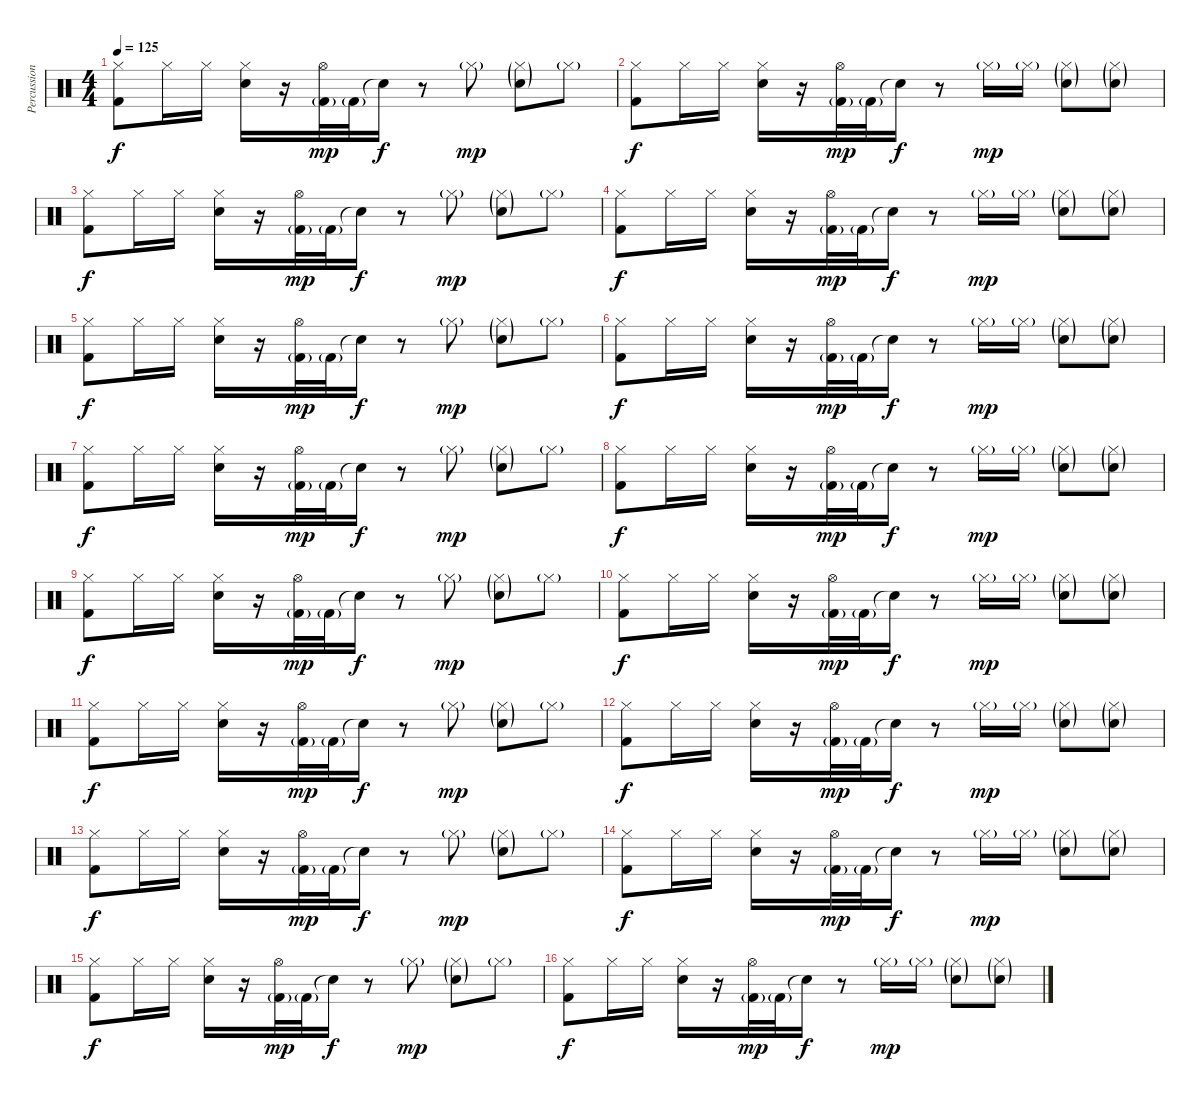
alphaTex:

\track ("Percussion" "Percussion") {instrument percussion}
\staff {score}
\articulation defaults
\ts (4 4)
\tempo 125
\clef neutral
\ks c
("Hi-Hat (closed)" "Kick (hit) 2").8{dy f} "Hi-Hat (closed)".16 "Hi-Hat (closed)".16 ("Hi-Hat (closed)" "Snare (hit) 2").16 r.16 ("Hi-Hat (open)" "Kick (hit) 2"{g}).32{dy mp} "Kick (hit) 2"{g}.32 "Snare (hit)"{t}.16{dy f} r.8 "Hi-Hat (closed)"{g}.8{dy mp} ("Hi-Hat (closed)"{g} "Snare (hit) 2"{g}).8 "Hi-Hat (closed)"{g}.8 |
("Hi-Hat (closed)" "Kick (hit) 2").8{dy f} "Hi-Hat (closed)".16 "Hi-Hat (closed)".16 ("Hi-Hat (closed)" "Snare (hit) 2").16 r.16 ("Hi-Hat (open)" "Kick (hit) 2"{g}).32{dy mp} "Kick (hit) 2"{g}.32 "Snare (hit)"{t}.16{dy f} r.8 "Hi-Hat (closed)"{g}.16{dy mp} "Hi-Hat (closed)"{g}.16 ("Hi-Hat (closed)"{g} "Snare (hit) 2"{g}).8 ("Hi-Hat (closed)"{g} "Snare (hit) 2"{g}).8 |
("Hi-Hat (closed)" "Kick (hit) 2").8{dy f} "Hi-Hat (closed)".16 "Hi-Hat (closed)".16 ("Hi-Hat (closed)" "Snare (hit) 2").16 r.16 ("Hi-Hat (open)" "Kick (hit) 2"{g}).32{dy mp} "Kick (hit) 2"{g}.32 "Snare (hit)"{t}.16{dy f} r.8 "Hi-Hat (closed)"{g}.8{dy mp} ("Hi-Hat (closed)"{g} "Snare (hit) 2"{g}).8 "Hi-Hat (closed)"{g}.8 |
("Hi-Hat (closed)" "Kick (hit) 2").8{dy f} "Hi-Hat (closed)".16 "Hi-Hat (closed)".16 ("Hi-Hat (closed)" "Snare (hit) 2").16 r.16 ("Hi-Hat (open)" "Kick (hit) 2"{g}).32{dy mp} "Kick (hit) 2"{g}.32 "Snare (hit)"{t}.16{dy f} r.8 "Hi-Hat (closed)"{g}.16{dy mp} "Hi-Hat (closed)"{g}.16 ("Hi-Hat (closed)"{g} "Snare (hit) 2"{g}).8 ("Hi-Hat (closed)"{g} "Snare (hit) 2"{g}).8 |
("Hi-Hat (closed)" "Kick (hit) 2").8{dy f} "Hi-Hat (closed)".16 "Hi-Hat (closed)".16 ("Hi-Hat (closed)" "Snare (hit) 2").16 r.16 ("Hi-Hat (open)" "Kick (hit) 2"{g}).32{dy mp} "Kick (hit) 2"{g}.32 "Snare (hit)"{t}.16{dy f} r.8 "Hi-Hat (closed)"{g}.8{dy mp} ("Hi-Hat (closed)"{g} "Snare (hit) 2"{g}).8 "Hi-Hat (closed)"{g}.8 |
("Hi-Hat (closed)" "Kick (hit) 2").8{dy f} "Hi-Hat (closed)".16 "Hi-Hat (closed)".16 ("Hi-Hat (closed)" "Snare (hit) 2").16 r.16 ("Hi-Hat (open)" "Kick (hit) 2"{g}).32{dy mp} "Kick (hit) 2"{g}.32 "Snare (hit)"{t}.16{dy f} r.8 "Hi-Hat (closed)"{g}.16{dy mp} "Hi-Hat (closed)"{g}.16 ("Hi-Hat (closed)"{g} "Snare (hit) 2"{g}).8 ("Hi-Hat (closed)"{g} "Snare (hit) 2"{g}).8 |
("Hi-Hat (closed)" "Kick (hit) 2").8{dy f} "Hi-Hat (closed)".16 "Hi-Hat (closed)".16 ("Hi-Hat (closed)" "Snare (hit) 2").16 r.16 ("Hi-Hat (open)" "Kick (hit) 2"{g}).32{dy mp} "Kick (hit) 2"{g}.32 "Snare (hit)"{t}.16{dy f} r.8 "Hi-Hat (closed)"{g}.8{dy mp} ("Hi-Hat (closed)"{g} "Snare (hit) 2"{g}).8 "Hi-Hat (closed)"{g}.8 |
("Hi-Hat (closed)" "Kick (hit) 2").8{dy f} "Hi-Hat (closed)".16 "Hi-Hat (closed)".16 ("Hi-Hat (closed)" "Snare (hit) 2").16 r.16 ("Hi-Hat (open)" "Kick (hit) 2"{g}).32{dy mp} "Kick (hit) 2"{g}.32 "Snare (hit)"{t}.16{dy f} r.8 "Hi-Hat (closed)"{g}.16{dy mp} "Hi-Hat (closed)"{g}.16 ("Hi-Hat (closed)"{g} "Snare (hit) 2"{g}).8 ("Hi-Hat (closed)"{g} "Snare (hit) 2"{g}).8 |
("Hi-Hat (closed)" "Kick (hit) 2").8{dy f} "Hi-Hat (closed)".16 "Hi-Hat (closed)".16 ("Hi-Hat (closed)" "Snare (hit) 2").16 r.16 ("Hi-Hat (open)" "Kick (hit) 2"{g}).32{dy mp} "Kick (hit) 2"{g}.32 "Snare (hit)"{t}.16{dy f} r.8 "Hi-Hat (closed)"{g}.8{dy mp} ("Hi-Hat (closed)"{g} "Snare (hit) 2"{g}).8 "Hi-Hat (closed)"{g}.8 |
("Hi-Hat (closed)" "Kick (hit) 2").8{dy f} "Hi-Hat (closed)".16 "Hi-Hat (closed)".16 ("Hi-Hat (closed)" "Snare (hit) 2").16 r.16 ("Hi-Hat (open)" "Kick (hit) 2"{g}).32{dy mp} "Kick (hit) 2"{g}.32 "Snare (hit)"{t}.16{dy f} r.8 "Hi-Hat (closed)"{g}.16{dy mp} "Hi-Hat (closed)"{g}.16 ("Hi-Hat (closed)"{g} "Snare (hit) 2"{g}).8 ("Hi-Hat (closed)"{g} "Snare (hit) 2"{g}).8 |
("Hi-Hat (closed)" "Kick (hit) 2").8{dy f} "Hi-Hat (closed)".16 "Hi-Hat (closed)".16 ("Hi-Hat (closed)" "Snare (hit) 2").16 r.16 ("Hi-Hat (open)" "Kick (hit) 2"{g}).32{dy mp} "Kick (hit) 2"{g}.32 "Snare (hit)"{t}.16{dy f} r.8 "Hi-Hat (closed)"{g}.8{dy mp} ("Hi-Hat (closed)"{g} "Snare (hit) 2"{g}).8 "Hi-Hat (closed)"{g}.8 |
("Hi-Hat (closed)" "Kick (hit) 2").8{dy f} "Hi-Hat (closed)".16 "Hi-Hat (closed)".16 ("Hi-Hat (closed)" "Snare (hit) 2").16 r.16 ("Hi-Hat (open)" "Kick (hit) 2"{g}).32{dy mp} "Kick (hit) 2"{g}.32 "Snare (hit)"{t}.16{dy f} r.8 "Hi-Hat (closed)"{g}.16{dy mp} "Hi-Hat (closed)"{g}.16 ("Hi-Hat (closed)"{g} "Snare (hit) 2"{g}).8 ("Hi-Hat (closed)"{g} "Snare (hit) 2"{g}).8 |
("Hi-Hat (closed)" "Kick (hit) 2").8{dy f} "Hi-Hat (closed)".16 "Hi-Hat (closed)".16 ("Hi-Hat (closed)" "Snare (hit) 2").16 r.16 ("Hi-Hat (open)" "Kick (hit) 2"{g}).32{dy mp} "Kick (hit) 2"{g}.32 "Snare (hit)"{t}.16{dy f} r.8 "Hi-Hat (closed)"{g}.8{dy mp} ("Hi-Hat (closed)"{g} "Snare (hit) 2"{g}).8 "Hi-Hat (closed)"{g}.8 |
("Hi-Hat (closed)" "Kick (hit) 2").8{dy f} "Hi-Hat (closed)".16 "Hi-Hat (closed)".16 ("Hi-Hat (closed)" "Snare (hit) 2").16 r.16 ("Hi-Hat (open)" "Kick (hit) 2"{g}).32{dy mp} "Kick (hit) 2"{g}.32 "Snare (hit)"{t}.16{dy f} r.8 "Hi-Hat (closed)"{g}.16{dy mp} "Hi-Hat (closed)"{g}.16 ("Hi-Hat (closed)"{g} "Snare (hit) 2"{g}).8 ("Hi-Hat (closed)"{g} "Snare (hit) 2"{g}).8 |
("Hi-Hat (closed)" "Kick (hit) 2").8{dy f} "Hi-Hat (closed)".16 "Hi-Hat (closed)".16 ("Hi-Hat (closed)" "Snare (hit) 2").16 r.16 ("Hi-Hat (open)" "Kick (hit) 2"{g}).32{dy mp} "Kick (hit) 2"{g}.32 "Snare (hit)"{t}.16{dy f} r.8 "Hi-Hat (closed)"{g}.8{dy mp} ("Hi-Hat (closed)"{g} "Snare (hit) 2"{g}).8 "Hi-Hat (closed)"{g}.8 |
("Hi-Hat (closed)" "Kick (hit) 2").8{dy f} "Hi-Hat (closed)".16 "Hi-Hat (closed)".16 ("Hi-Hat (closed)" "Snare (hit) 2").16 r.16 ("Hi-Hat (open)" "Kick (hit) 2"{g}).32{dy mp} "Kick (hit) 2"{g}.32 "Snare (hit)"{t}.16{dy f} r.8 "Hi-Hat (closed)"{g}.16{dy mp} "Hi-Hat (closed)"{g}.16 ("Hi-Hat (closed)"{g} "Snare (hit) 2"{g}).8 ("Hi-Hat (closed)"{g} "Snare (hit) 2"{g}).8
